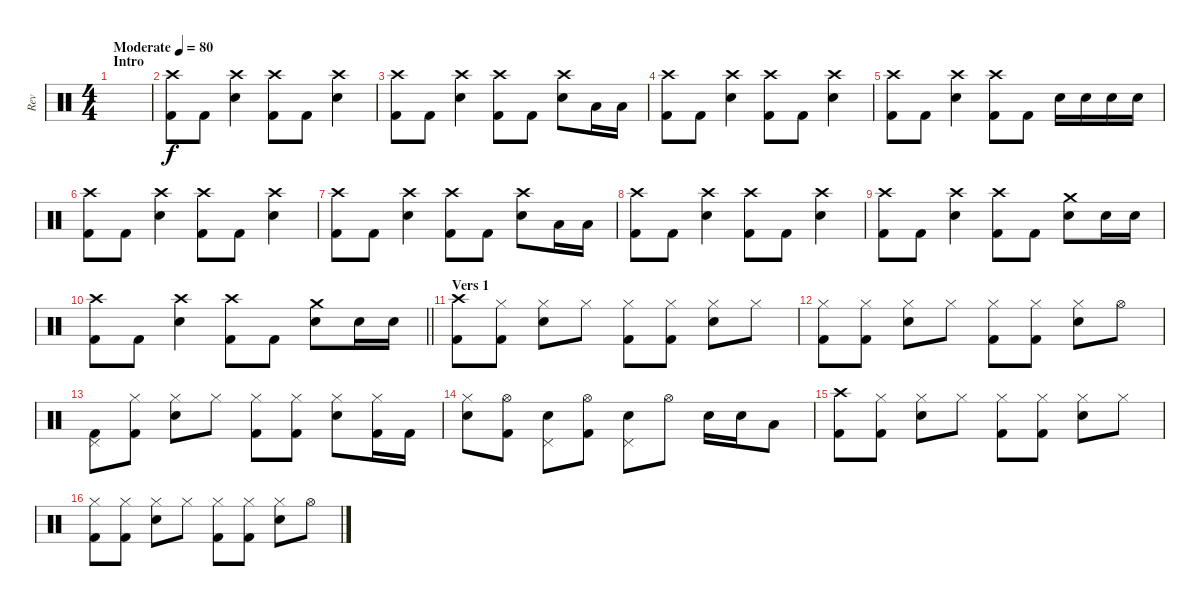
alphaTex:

\track ("Rev" "Rev") {instrument percussion}
\staff {score}
\articulation defaults
\ts (4 4)
\section ("" "Intro")
\tempo (80 "Moderate")
\clef neutral
\ks c
|
("Crash high (hit)" "Kick (hit) 2").8 "Kick (hit) 2".8 ("Crash high (hit)" "Electric Snare (hit)").4 ("Crash high (hit)" "Kick (hit) 2").8 "Kick (hit) 2".8 ("Crash high (hit)" "Electric Snare (hit)").4 |
("Crash high (hit)" "Kick (hit) 2").8 "Kick (hit) 2".8 ("Crash high (hit)" "Electric Snare (hit)").4 ("Crash high (hit)" "Kick (hit) 2").8 "Kick (hit) 2".8 ("Crash high (hit)" "Electric Snare (hit)").8 "Low Tom (hit)".16 "Low Floor Tom (hit)".16 |
("Crash high (hit)" "Kick (hit) 2").8 "Kick (hit) 2".8 ("Crash high (hit)" "Electric Snare (hit)").4 ("Crash high (hit)" "Kick (hit) 2").8 "Kick (hit) 2".8 ("Crash high (hit)" "Electric Snare (hit)").4 |
("Crash high (hit)" "Kick (hit) 2").8 "Kick (hit) 2".8 ("Crash high (hit)" "Electric Snare (hit)").4 ("Crash high (hit)" "Kick (hit) 2").8 "Kick (hit) 2".8 "Electric Snare (hit)".16 "Electric Snare (hit)".16 "Electric Snare (hit)".16 "Electric Snare (hit)".16 |
("Crash high (hit)" "Kick (hit) 2").8 "Kick (hit) 2".8 ("Crash high (hit)" "Electric Snare (hit)").4 ("Crash high (hit)" "Kick (hit) 2").8 "Kick (hit) 2".8 ("Crash high (hit)" "Electric Snare (hit)").4 |
("Crash high (hit)" "Kick (hit) 2").8 "Kick (hit) 2".8 ("Crash high (hit)" "Electric Snare (hit)").4 ("Crash high (hit)" "Kick (hit) 2").8 "Kick (hit) 2".8 ("Crash high (hit)" "Electric Snare (hit)").8 "Low Tom (hit)".16 "Low Floor Tom (hit)".16 |
("Crash high (hit)" "Kick (hit) 2").8 "Kick (hit) 2".8 ("Crash high (hit)" "Electric Snare (hit)").4 ("Crash high (hit)" "Kick (hit) 2").8 "Kick (hit) 2".8 ("Crash high (hit)" "Electric Snare (hit)").4 |
("Crash high (hit)" "Kick (hit) 2").8 "Kick (hit) 2".8 ("Crash high (hit)" "Electric Snare (hit)").4 ("Crash high (hit)" "Kick (hit) 2").8 "Kick (hit) 2".8 ("Crash medium (hit)" "Electric Snare (hit)").8 "Electric Snare (hit)".16 "Electric Snare (hit)".16 |
\barLineRight lightlight
("Crash high (hit)" "Kick (hit) 2").8 "Kick (hit) 2".8 ("Crash high (hit)" "Electric Snare (hit)").4 ("Crash high (hit)" "Kick (hit) 2").8 "Kick (hit) 2".8 ("Crash medium (hit)" "Electric Snare (hit)").8 "Electric Snare (hit)".16 "Electric Snare (hit)".16 |
\section ("" "Vers 1")
("Crash high (hit)" "Kick (hit) 2").8 ("Hi-Hat (closed)" "Kick (hit) 2").8 ("Hi-Hat (closed)" "Electric Snare (hit)").8 "Hi-Hat (closed)".8 ("Hi-Hat (closed)" "Kick (hit) 2").8 ("Hi-Hat (closed)" "Kick (hit) 2").8 ("Hi-Hat (closed)" "Electric Snare (hit)").8 "Hi-Hat (closed)".8 |
("Hi-Hat (closed)" "Kick (hit) 2").8 ("Hi-Hat (closed)" "Kick (hit) 2").8 ("Hi-Hat (closed)" "Electric Snare (hit)").8 "Hi-Hat (closed)".8 ("Hi-Hat (closed)" "Kick (hit) 2").8 ("Hi-Hat (closed)" "Kick (hit) 2").8 ("Hi-Hat (closed)" "Electric Snare (hit)").8 "Hi-Hat (open)".8 |
("Pedal Hi-Hat (hit)" "Kick (hit) 2").8 ("Hi-Hat (closed)" "Kick (hit) 2").8 ("Hi-Hat (closed)" "Electric Snare (hit)").8 "Hi-Hat (closed)".8 ("Hi-Hat (closed)" "Kick (hit) 2").8 ("Hi-Hat (closed)" "Kick (hit) 2").8 ("Hi-Hat (closed)" "Electric Snare (hit)").8 ("Hi-Hat (closed)" "Kick (hit) 2").16 "Kick (hit) 2".16 |
("Hi-Hat (closed)" "Electric Snare (hit)").8 ("Hi-Hat (open)" "Kick (hit) 2").8 ("Pedal Hi-Hat (hit)" "Electric Snare (hit)").8 ("Hi-Hat (open)" "Kick (hit) 2").8 ("Pedal Hi-Hat (hit)" "Electric Snare (hit)").8 "Hi-Hat (open)".8 "Electric Snare (hit)".16 "Electric Snare (hit)".16 "Low Tom (hit)".8 |
("Crash high (hit)" "Kick (hit) 2").8 ("Hi-Hat (closed)" "Kick (hit) 2").8 ("Hi-Hat (closed)" "Electric Snare (hit)").8 "Hi-Hat (closed)".8 ("Hi-Hat (closed)" "Kick (hit) 2").8 ("Hi-Hat (closed)" "Kick (hit) 2").8 ("Hi-Hat (closed)" "Electric Snare (hit)").8 "Hi-Hat (closed)".8 |
("Hi-Hat (closed)" "Kick (hit) 2").8 ("Hi-Hat (closed)" "Kick (hit) 2").8 ("Hi-Hat (closed)" "Electric Snare (hit)").8 "Hi-Hat (closed)".8 ("Hi-Hat (closed)" "Kick (hit) 2").8 ("Hi-Hat (closed)" "Kick (hit) 2").8 ("Hi-Hat (closed)" "Electric Snare (hit)").8 "Hi-Hat (open)".8
